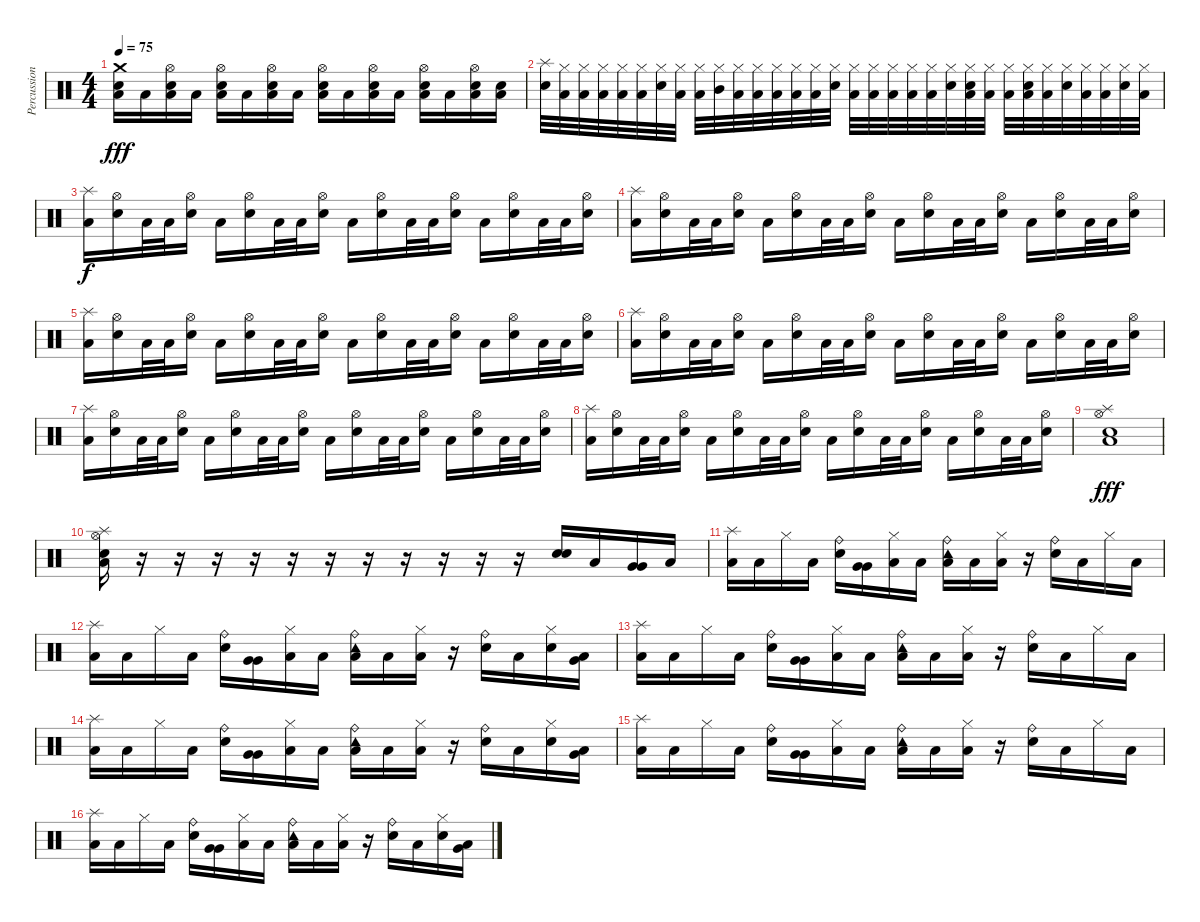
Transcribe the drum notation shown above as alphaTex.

\track ("Percussion" "Percussion") {instrument percussion}
\staff {score}
\articulation defaults
\ts (4 4)
\tempo 75
\clef neutral
\ks c
("Crash medium (hit)" "Snare (hit) 2" "Low Floor Tom (hit)").16{dy fff} "Low Floor Tom (hit)".16 ("Hi-Hat (open)" "Snare (hit) 2" "Low Floor Tom (hit)").16 "Low Floor Tom (hit)".16 ("Hi-Hat (open)" "Snare (hit) 2" "Low Floor Tom (hit)").16 "Low Floor Tom (hit)".16 ("Hi-Hat (open)" "Snare (hit) 2" "Low Floor Tom (hit)").16 "Low Floor Tom (hit)".16 ("Hi-Hat (open)" "Snare (hit) 2" "Low Floor Tom (hit)").16 "Low Floor Tom (hit)".16 ("Hi-Hat (open)" "Snare (hit) 2" "Low Floor Tom (hit)").16 "Low Floor Tom (hit)".16 ("Hi-Hat (open)" "Snare (hit) 2" "Low Floor Tom (hit)").16 "Low Floor Tom (hit)".16 ("Hi-Hat (open)" "Snare (hit) 2" "Low Floor Tom (hit)").16 ("Snare (hit) 2" "Low Floor Tom (hit)").16 |
("Splash (hit)" "Snare (hit) 2").32 ("Hi-Hat (closed)" "Low Floor Tom (hit)").32 ("Hi-Hat (closed)" "Low Floor Tom (hit)").32 ("Hi-Hat (closed)" "Low Tom (hit)").32 ("Hi-Hat (closed)" "Low Floor Tom (hit)").32 ("Hi-Hat (closed)" "Low Floor Tom (hit)").32 ("Hi-Hat (closed)" "Snare (hit) 2").32 ("Hi-Hat (closed)" "Low Floor Tom (hit)").32 ("Hi-Hat (closed)" "Low Floor Tom (hit)").32 ("Hi-Hat (closed)" "Mid Tom (hit)").32 ("Hi-Hat (closed)" "Low Floor Tom (hit)").32 ("Hi-Hat (closed)" "Low Floor Tom (hit)").32 ("Hi-Hat (closed)" "Low Tom (hit)").32 ("Hi-Hat (closed)" "Low Floor Tom (hit)").32 ("Hi-Hat (closed)" "Low Floor Tom (hit)").32 ("Hi-Hat (closed)" "Snare (hit) 2").32 ("Hi-Hat (closed)" "Low Floor Tom (hit)").32 ("Hi-Hat (closed)" "Low Floor Tom (hit)").32 ("Hi-Hat (closed)" "Low Tom (hit)").32 ("Hi-Hat (closed)" "Low Floor Tom (hit)").32 ("Hi-Hat (closed)" "Low Floor Tom (hit)").32 ("Hi-Hat (closed)" "Snare (hit) 2").32 ("Hi-Hat (closed)" "Snare (hit) 2" "Low Floor Tom (hit)").32 ("Hi-Hat (closed)" "Low Floor Tom (hit)").32 ("Hi-Hat (closed)" "Low Floor Tom (hit)").32 ("Hi-Hat (closed)" "Snare (hit) 2" "Low Floor Tom (hit)").32 ("Hi-Hat (closed)" "Low Floor Tom (hit)").32 ("Hi-Hat (closed)" "Snare (hit) 2").32 ("Hi-Hat (closed)" "Low Floor Tom (hit)").32 ("Hi-Hat (closed)" "Low Floor Tom (hit)").32 ("Hi-Hat (closed)" "Snare (hit) 2").32 ("Hi-Hat (closed)" "Low Floor Tom (hit)").32 |
("Splash (hit)" "Low Floor Tom (hit)").16{dy f} ("Hi-Hat (open)" "Snare (hit) 2").16 "Low Floor Tom (hit)".32 "Low Floor Tom (hit)".32 ("Hi-Hat (open)" "Snare (hit) 2").16 "Low Floor Tom (hit)".16 ("Hi-Hat (open)" "Snare (hit) 2").16 "Low Floor Tom (hit)".32 "Low Floor Tom (hit)".32 ("Hi-Hat (open)" "Snare (hit) 2").16 "Low Floor Tom (hit)".16 ("Hi-Hat (open)" "Snare (hit) 2").16 "Low Floor Tom (hit)".32 "Low Floor Tom (hit)".32 ("Hi-Hat (open)" "Snare (hit) 2").16 "Low Floor Tom (hit)".16 ("Hi-Hat (open)" "Snare (hit) 2").16 "Low Floor Tom (hit)".32 "Low Floor Tom (hit)".32 ("Hi-Hat (open)" "Snare (hit) 2").16 |
("Splash (hit)" "Low Floor Tom (hit)").16 ("Hi-Hat (open)" "Snare (hit) 2").16 "Low Floor Tom (hit)".32 "Low Floor Tom (hit)".32 ("Hi-Hat (open)" "Snare (hit) 2").16 "Low Floor Tom (hit)".16 ("Hi-Hat (open)" "Snare (hit) 2").16 "Low Floor Tom (hit)".32 "Low Floor Tom (hit)".32 ("Hi-Hat (open)" "Snare (hit) 2").16 "Low Floor Tom (hit)".16 ("Hi-Hat (open)" "Snare (hit) 2").16 "Low Floor Tom (hit)".32 "Low Floor Tom (hit)".32 ("Hi-Hat (open)" "Snare (hit) 2").16 "Low Floor Tom (hit)".16 ("Hi-Hat (open)" "Snare (hit) 2").16 "Low Floor Tom (hit)".32 "Low Floor Tom (hit)".32 ("Hi-Hat (open)" "Snare (hit) 2").16 |
("Splash (hit)" "Low Floor Tom (hit)").16 ("Hi-Hat (open)" "Snare (hit) 2").16 "Low Floor Tom (hit)".32 "Low Floor Tom (hit)".32 ("Hi-Hat (open)" "Snare (hit) 2").16 "Low Floor Tom (hit)".16 ("Hi-Hat (open)" "Snare (hit) 2").16 "Low Floor Tom (hit)".32 "Low Floor Tom (hit)".32 ("Hi-Hat (open)" "Snare (hit) 2").16 "Low Floor Tom (hit)".16 ("Hi-Hat (open)" "Snare (hit) 2").16 "Low Floor Tom (hit)".32 "Low Floor Tom (hit)".32 ("Hi-Hat (open)" "Snare (hit) 2").16 "Low Floor Tom (hit)".16 ("Hi-Hat (open)" "Snare (hit) 2").16 "Low Floor Tom (hit)".32 "Low Floor Tom (hit)".32 ("Hi-Hat (open)" "Snare (hit) 2").16 |
("Splash (hit)" "Low Floor Tom (hit)").16 ("Hi-Hat (open)" "Snare (hit) 2").16 "Low Floor Tom (hit)".32 "Low Floor Tom (hit)".32 ("Hi-Hat (open)" "Snare (hit) 2").16 "Low Floor Tom (hit)".16 ("Hi-Hat (open)" "Snare (hit) 2").16 "Low Floor Tom (hit)".32 "Low Floor Tom (hit)".32 ("Hi-Hat (open)" "Snare (hit) 2").16 "Low Floor Tom (hit)".16 ("Hi-Hat (open)" "Snare (hit) 2").16 "Low Floor Tom (hit)".32 "Low Floor Tom (hit)".32 ("Hi-Hat (open)" "Snare (hit) 2").16 "Low Floor Tom (hit)".16 ("Hi-Hat (open)" "Snare (hit) 2").16 "Low Floor Tom (hit)".32 "Low Floor Tom (hit)".32 ("Hi-Hat (open)" "Snare (hit) 2").16 |
("Splash (hit)" "Low Floor Tom (hit)").16 ("Hi-Hat (open)" "Snare (hit) 2").16 "Low Floor Tom (hit)".32 "Low Floor Tom (hit)".32 ("Hi-Hat (open)" "Snare (hit) 2").16 "Low Floor Tom (hit)".16 ("Hi-Hat (open)" "Snare (hit) 2").16 "Low Floor Tom (hit)".32 "Low Floor Tom (hit)".32 ("Hi-Hat (open)" "Snare (hit) 2").16 "Low Floor Tom (hit)".16 ("Hi-Hat (open)" "Snare (hit) 2").16 "Low Floor Tom (hit)".32 "Low Floor Tom (hit)".32 ("Hi-Hat (open)" "Snare (hit) 2").16 "Low Floor Tom (hit)".16 ("Hi-Hat (open)" "Snare (hit) 2").16 "Low Floor Tom (hit)".32 "Low Floor Tom (hit)".32 ("Hi-Hat (open)" "Snare (hit) 2").16 |
("Splash (hit)" "Low Floor Tom (hit)").16 ("Hi-Hat (open)" "Snare (hit) 2").16 "Low Floor Tom (hit)".32 "Low Floor Tom (hit)".32 ("Hi-Hat (open)" "Snare (hit) 2").16 "Low Floor Tom (hit)".16 ("Hi-Hat (open)" "Snare (hit) 2").16 "Low Floor Tom (hit)".32 "Low Floor Tom (hit)".32 ("Hi-Hat (open)" "Snare (hit) 2").16 "Low Floor Tom (hit)".16 ("Hi-Hat (open)" "Snare (hit) 2").16 "Low Floor Tom (hit)".32 "Low Floor Tom (hit)".32 ("Hi-Hat (open)" "Snare (hit) 2").16 "Low Floor Tom (hit)".16 ("Hi-Hat (open)" "Snare (hit) 2").16 "Low Floor Tom (hit)".32 "Low Floor Tom (hit)".32 ("Hi-Hat (open)" "Snare (hit) 2").16 |
("Hi-Hat (open)" "Splash (hit)" "Snare (hit) 2" "Low Floor Tom (hit)").1{dy fff} |
("Hi-Hat (open)" "Splash (hit)" "Snare (hit) 2" "Low Floor Tom (hit)").16 r.16 r.16 r.16 r.16 r.16 r.16 r.16 r.16 r.16 r.16 r.16 ("Snare (hit) 2" "Snare (hit) 2").16{bu 240} "Low Floor Tom (hit)".16 ("Very Low Tom (hit)" "Very Low Tom (hit)").16{bu 240} "Low Floor Tom (hit)".16 |
("Splash (hit)" "Low Floor Tom (hit)").16 "Low Floor Tom (hit)".16 "Hi-Hat (closed)".16 "Low Floor Tom (hit)".16 ("Ride (bell)" "Snare (hit) 2").16 ("Very Low Tom (hit)" "Very Low Tom (hit)").16{bu 240} ("Hi-Hat (closed)" "Low Floor Tom (hit)").16 "Low Floor Tom (hit)".16 ("Ride (bell)" "Tambourine (hit)" "Low Tom (hit)").16 "Low Floor Tom (hit)".16 ("Hi-Hat (closed)" "Low Floor Tom (hit)").16 r.16 ("Ride (bell)" "Snare (hit) 2").16 "Low Floor Tom (hit)".16 "Hi-Hat (closed)".16 "Low Floor Tom (hit)".16 |
("Splash (hit)" "Low Floor Tom (hit)").16 "Low Floor Tom (hit)".16 "Hi-Hat (closed)".16 "Low Floor Tom (hit)".16 ("Ride (bell)" "Snare (hit) 2").16 ("Very Low Tom (hit)" "Very Low Tom (hit)").16{bu 240} ("Hi-Hat (closed)" "Low Floor Tom (hit)").16 "Low Floor Tom (hit)".16 ("Ride (bell)" "Tambourine (hit)" "Low Tom (hit)").16 "Low Floor Tom (hit)".16 ("Hi-Hat (closed)" "Low Floor Tom (hit)").16 r.16 ("Ride (bell)" "Snare (hit) 2").16 "Low Floor Tom (hit)".16 ("Hi-Hat (closed)" "Snare (hit) 2").16 ("Very Low Tom (hit)" "Low Floor Tom (hit)").16 |
("Splash (hit)" "Low Floor Tom (hit)").16 "Low Floor Tom (hit)".16 "Hi-Hat (closed)".16 "Low Floor Tom (hit)".16 ("Ride (bell)" "Snare (hit) 2").16 ("Very Low Tom (hit)" "Very Low Tom (hit)").16{bu 240} ("Hi-Hat (closed)" "Low Floor Tom (hit)").16 "Low Floor Tom (hit)".16 ("Ride (bell)" "Tambourine (hit)" "Low Tom (hit)").16 "Low Floor Tom (hit)".16 ("Hi-Hat (closed)" "Low Floor Tom (hit)").16 r.16 ("Ride (bell)" "Snare (hit) 2").16 "Low Floor Tom (hit)".16 "Hi-Hat (closed)".16 "Low Floor Tom (hit)".16 |
("Splash (hit)" "Low Floor Tom (hit)").16 "Low Floor Tom (hit)".16 "Hi-Hat (closed)".16 "Low Floor Tom (hit)".16 ("Ride (bell)" "Snare (hit) 2").16 ("Very Low Tom (hit)" "Very Low Tom (hit)").16{bu 240} ("Hi-Hat (closed)" "Low Floor Tom (hit)").16 "Low Floor Tom (hit)".16 ("Ride (bell)" "Tambourine (hit)" "Low Tom (hit)").16 "Low Floor Tom (hit)".16 ("Hi-Hat (closed)" "Low Floor Tom (hit)").16 r.16 ("Ride (bell)" "Snare (hit) 2").16 "Low Floor Tom (hit)".16 ("Hi-Hat (closed)" "Snare (hit) 2").16 ("Very Low Tom (hit)" "Low Floor Tom (hit)").16 |
("Splash (hit)" "Low Floor Tom (hit)").16 "Low Floor Tom (hit)".16 "Hi-Hat (closed)".16 "Low Floor Tom (hit)".16 ("Ride (bell)" "Snare (hit) 2").16 ("Very Low Tom (hit)" "Very Low Tom (hit)").16{bu 240} ("Hi-Hat (closed)" "Low Floor Tom (hit)").16 "Low Floor Tom (hit)".16 ("Ride (bell)" "Tambourine (hit)" "Low Tom (hit)").16 "Low Floor Tom (hit)".16 ("Hi-Hat (closed)" "Low Floor Tom (hit)").16 r.16 ("Ride (bell)" "Snare (hit) 2").16 "Low Floor Tom (hit)".16 "Hi-Hat (closed)".16 "Low Floor Tom (hit)".16 |
("Splash (hit)" "Low Floor Tom (hit)").16 "Low Floor Tom (hit)".16 "Hi-Hat (closed)".16 "Low Floor Tom (hit)".16 ("Ride (bell)" "Snare (hit) 2").16 ("Very Low Tom (hit)" "Very Low Tom (hit)").16{bu 240} ("Hi-Hat (closed)" "Low Floor Tom (hit)").16 "Low Floor Tom (hit)".16 ("Ride (bell)" "Tambourine (hit)" "Low Tom (hit)").16 "Low Floor Tom (hit)".16 ("Hi-Hat (closed)" "Low Floor Tom (hit)").16 r.16 ("Ride (bell)" "Snare (hit) 2").16 "Low Floor Tom (hit)".16 ("Hi-Hat (closed)" "Snare (hit) 2").16 ("Very Low Tom (hit)" "Low Floor Tom (hit)").16
